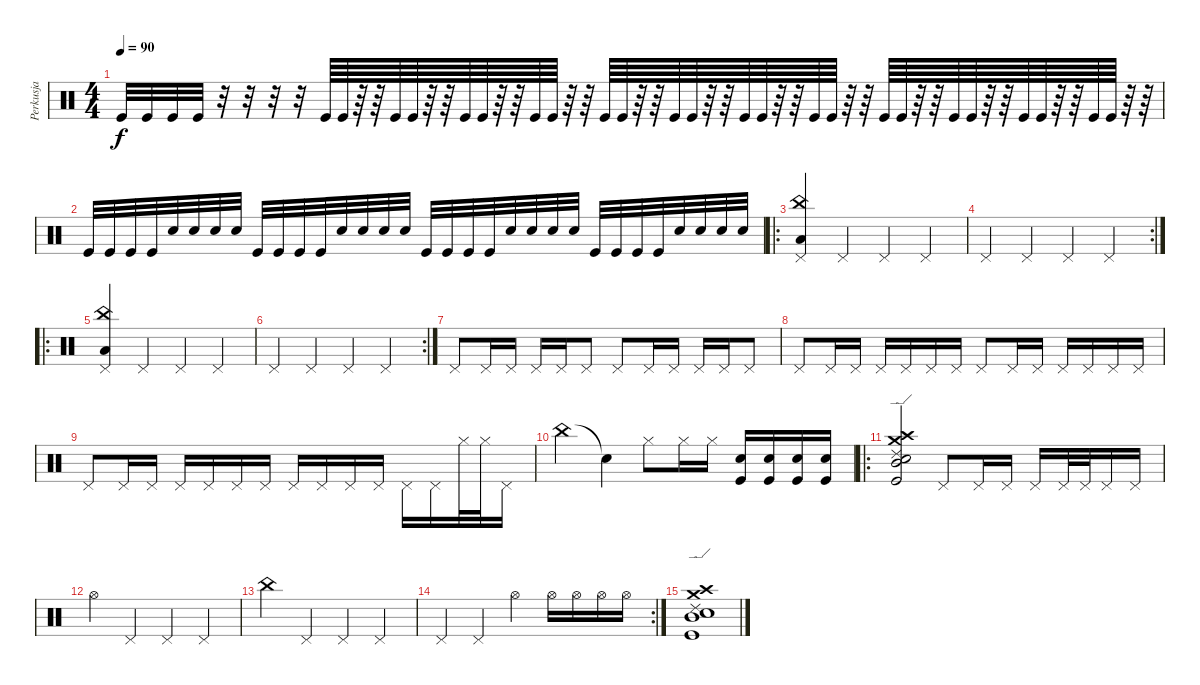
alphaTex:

\track ("Perkusja" "Perkusja") {instrument percussion}
\staff {score}
\articulation defaults
\ts (4 4)
\tempo 90
\clef neutral
\ks c "Kick (hit)".32{dy f} "Kick (hit)".32 "Kick (hit)".32 "Kick (hit)".32
r.32 r.32 r.32 r.32 "Kick (hit)".64 "Kick (hit)".64 r.64 r.64 "Kick (hit)".64 "Kick (hit)".64 r.64 r.64 "Kick (hit)".64 "Kick (hit)".64 r.64 r.64 "Kick (hit)".64 "Kick (hit)".64 r.64 r.64 "Kick (hit)".64 "Kick (hit)".64 r.64 r.64 "Kick (hit)".64 "Kick (hit)".64 r.64 r.64 "Kick (hit)".64 "Kick (hit)".64 r.64 r.64 "Kick (hit)".64 "Kick (hit)".64 r.64 r.64 "Kick (hit)".64 "Kick (hit)".64 r.64 r.64 "Kick (hit)".64 "Kick (hit)".64 r.64 r.64 "Kick (hit)".64 "Kick (hit)".64 r.64 r.64 "Kick (hit)".64 "Kick (hit)".64 r.64 r.64 |
"Kick (hit)".32 "Kick (hit)".32 "Kick (hit)".32 "Kick (hit)".32 "Snare (hit) 2".32 "Snare (hit) 2".32 "Snare (hit) 2".32 "Snare (hit) 2".32 "Kick (hit)".32 "Kick (hit)".32 "Kick (hit)".32 "Kick (hit)".32 "Snare (hit) 2".32 "Snare (hit) 2".32 "Snare (hit) 2".32 "Snare (hit) 2".32 "Kick (hit)".32 "Kick (hit)".32 "Kick (hit)".32 "Kick (hit)".32 "Snare (hit) 2".32 "Snare (hit) 2".32 "Snare (hit) 2".32 "Snare (hit) 2".32 "Kick (hit)".32 "Kick (hit)".32 "Kick (hit)".32 "Kick (hit)".32 "Electric Snare (hit)".32 "Electric Snare (hit)".32 "Electric Snare (hit)".32 "Electric Snare (hit)".32 |
\ro
("Pedal Hi-Hat (hit)" "China (hit)" "Low Tom (hit)").4 "Pedal Hi-Hat (hit)".4 "Pedal Hi-Hat (hit)".4 "Pedal Hi-Hat (hit)".4 |
\rc 2 "Pedal Hi-Hat (hit)".4 "Pedal Hi-Hat (hit)".4 "Pedal Hi-Hat (hit)".4 "Pedal Hi-Hat (hit)".4
|
\ro
("China (hit)" "Pedal Hi-Hat (hit)" "Low Tom (hit)").4 "Pedal Hi-Hat (hit)".4 "Pedal Hi-Hat (hit)".4 "Pedal Hi-Hat (hit)".4 |
\rc 2 "Pedal Hi-Hat (hit)".4 "Pedal Hi-Hat (hit)".4 "Pedal Hi-Hat (hit)".4 "Pedal Hi-Hat (hit)".4
|
"Pedal Hi-Hat (hit)".8 "Pedal Hi-Hat (hit)".16 "Pedal Hi-Hat (hit)".16 "Pedal Hi-Hat (hit)".16 "Pedal Hi-Hat (hit)".16 "Pedal Hi-Hat (hit)".8 "Pedal Hi-Hat (hit)".8 "Pedal Hi-Hat (hit)".16 "Pedal Hi-Hat (hit)".16 "Pedal Hi-Hat (hit)".16 "Pedal Hi-Hat (hit)".16 "Pedal Hi-Hat (hit)".8 |
"Pedal Hi-Hat (hit)".8 "Pedal Hi-Hat (hit)".16 "Pedal Hi-Hat (hit)".16 "Pedal Hi-Hat (hit)".16 "Pedal Hi-Hat (hit)".16 "Pedal Hi-Hat (hit)".16 "Pedal Hi-Hat (hit)".16 "Pedal Hi-Hat (hit)".8 "Pedal Hi-Hat (hit)".16 "Pedal Hi-Hat (hit)".16 "Pedal Hi-Hat (hit)".16 "Pedal Hi-Hat (hit)".16 "Pedal Hi-Hat (hit)".16 "Pedal Hi-Hat (hit)".16 |
"Pedal Hi-Hat (hit)".8 "Pedal Hi-Hat (hit)".16 "Pedal Hi-Hat (hit)".16 "Pedal Hi-Hat (hit)".16 "Pedal Hi-Hat (hit)".16 "Pedal Hi-Hat (hit)".16 "Pedal Hi-Hat (hit)".16 "Pedal Hi-Hat (hit)".16 "Pedal Hi-Hat (hit)".16 "Pedal Hi-Hat (hit)".16 "Pedal Hi-Hat (hit)".16 "Pedal Hi-Hat (hit)".16 "Pedal Hi-Hat (hit)".16 "Hi-Hat (closed)".32 "Hi-Hat (closed)".32 "Pedal Hi-Hat (hit)".16 |
"China (hit)".4 "Snare (hit)"{t}.4 "Hi-Hat (closed)".8 "Hi-Hat (closed)".16 "Hi-Hat (closed)".16 ("Electric Snare (hit)" "Kick (hit)").16 ("Electric Snare (hit)" "Kick (hit)").16 ("Electric Snare (hit)" "Kick (hit)").16 ("Electric Snare (hit)" "Kick (hit)").16 |
\ro
("Ride (edge) 2" "Crash medium (hit)" "Crash high (hit)" "Mid Tom (hit)" "Electric Snare (hit)" "Kick (hit)").2 "Pedal Hi-Hat (hit)".8 "Pedal Hi-Hat (hit)".16 "Pedal Hi-Hat (hit)".16 "Pedal Hi-Hat (hit)".16 "Pedal Hi-Hat (hit)".32 "Pedal Hi-Hat (hit)".32 "Pedal Hi-Hat (hit)".16 "Pedal Hi-Hat (hit)".16 |
"Hi-Hat (open)".4 "Pedal Hi-Hat (hit)".4 "Pedal Hi-Hat (hit)".4 "Pedal Hi-Hat (hit)".4 |
"China (hit)".4 "Pedal Hi-Hat (hit)".4 "Pedal Hi-Hat (hit)".4 "Pedal Hi-Hat (hit)".4 |
\rc 2 "Pedal Hi-Hat (hit)".4 "Pedal Hi-Hat (hit)".4 "Hi-Hat (open)".4 "Hi-Hat (open)".16 "Hi-Hat (open)".16 "Hi-Hat (open)".16 "Hi-Hat (open)".16
|
("Ride (edge) 2" "Crash medium (hit)" "Crash high (hit)" "Mid Tom (hit)" "Electric Snare (hit)" "Kick (hit)").1
